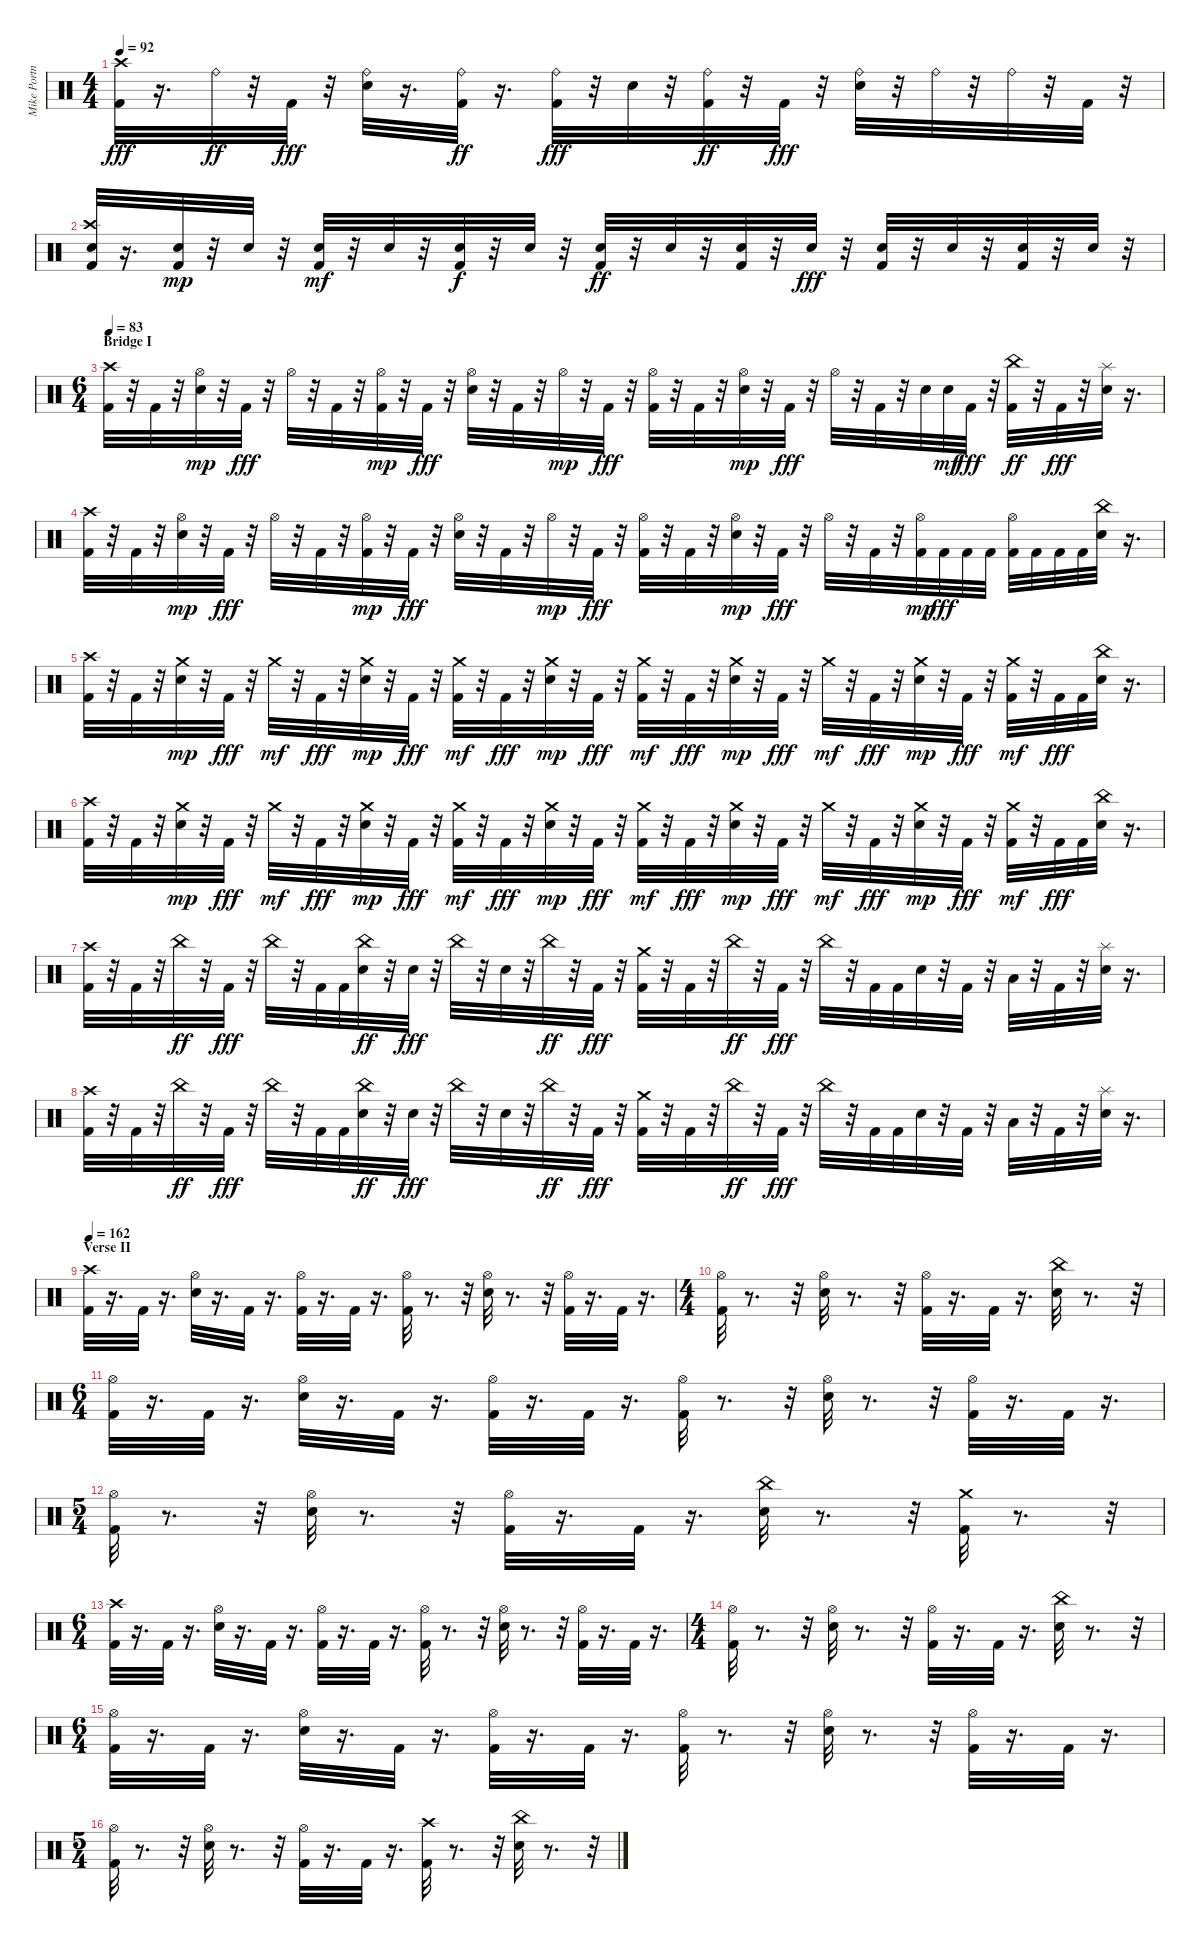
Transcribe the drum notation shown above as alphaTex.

\track ("Mike Portnoy" "Mike Portn") {instrument percussion}
\staff {score}
\articulation defaults
\ts (4 4)
\tempo 92
\clef neutral
\ks c
("Kick (hit) 2" "Crash high (hit)").32{dy fff} r.16{d} "Ride (bell)".32{dy ff} r.32 "Kick (hit) 2".32{dy fff} r.32 ("Ride (bell)" "Snare (hit) 2").32 r.16{d} ("Kick (hit) 2" "Ride (bell)").32{dy ff} r.16{d} ("Kick (hit) 2" "Ride (bell)").32{dy fff} r.32 "Snare (hit) 2".32 r.32 ("Kick (hit) 2" "Ride (bell)").32{dy ff} r.32 "Kick (hit) 2".32{dy fff} r.32 ("Ride (bell)" "Snare (hit) 2").32 r.32 "Ride (bell)".32 r.32 "Ride (bell)".32 r.32 "Kick (hit) 2".32 r.32 |
("Kick (hit) 2" "Snare (hit) 2" "Crash high (hit)").32 r.16{d} ("Kick (hit) 2" "Snare (hit) 2").32{dy mp} r.32 "Snare (hit) 2".32 r.32 ("Kick (hit) 2" "Snare (hit) 2").32{dy mf} r.32 "Snare (hit) 2".32 r.32 ("Kick (hit) 2" "Snare (hit) 2").32{dy f} r.32 "Snare (hit) 2".32 r.32 ("Kick (hit) 2" "Snare (hit) 2").32{dy ff} r.32 "Snare (hit) 2".32 r.32 ("Kick (hit) 2" "Snare (hit) 2").32 r.32 "Snare (hit) 2".32{dy fff} r.32 ("Kick (hit) 2" "Snare (hit) 2").32 r.32 "Snare (hit) 2".32 r.32 ("Kick (hit) 2" "Snare (hit) 2").32 r.32 "Snare (hit) 2".32 r.32 |
\ts (6 4)
\section ("" "Bridge I")
\tempo 83
("Kick (hit) 2" "Crash high (hit)").32 r.32 "Kick (hit) 2".32 r.32 ("Snare (hit) 2" "Hi-Hat (open)").32{dy mp} r.32 "Kick (hit) 2".32{dy fff} r.32 "Hi-Hat (open)".32 r.32 "Kick (hit) 2".32 r.32 ("Kick (hit) 2" "Hi-Hat (open)").32{dy mp} r.32 "Kick (hit) 2".32{dy fff} r.32 ("Snare (hit) 2" "Hi-Hat (open)").32 r.32 "Kick (hit) 2".32 r.32 "Hi-Hat (open)".32{dy mp} r.32 "Kick (hit) 2".32{dy fff} r.32 ("Kick (hit) 2" "Hi-Hat (open)").32 r.32 "Kick (hit) 2".32 r.32 ("Snare (hit) 2" "Hi-Hat (open)").32{dy mp} r.32 "Kick (hit) 2".32{dy fff} r.32 "Hi-Hat (open)".32 r.32 "Kick (hit) 2".32 r.32 "Snare (hit) 2".32 "Snare (hit) 2".32{dy mf} "Kick (hit) 2".32{dy fff} r.32 ("Kick (hit) 2" "China (hit)").32{dy ff} r.32 "Kick (hit) 2".32{dy fff} r.32 ("Snare (hit) 2" "Splash (hit)").32 r.16{d} |
("Kick (hit) 2" "Crash high (hit)").32 r.32 "Kick (hit) 2".32 r.32 ("Snare (hit) 2" "Hi-Hat (open)").32{dy mp} r.32 "Kick (hit) 2".32{dy fff} r.32 "Hi-Hat (open)".32 r.32 "Kick (hit) 2".32 r.32 ("Kick (hit) 2" "Hi-Hat (open)").32{dy mp} r.32 "Kick (hit) 2".32{dy fff} r.32 ("Snare (hit) 2" "Hi-Hat (open)").32 r.32 "Kick (hit) 2".32 r.32 "Hi-Hat (open)".32{dy mp} r.32 "Kick (hit) 2".32{dy fff} r.32 ("Kick (hit) 2" "Hi-Hat (open)").32 r.32 "Kick (hit) 2".32 r.32 ("Snare (hit) 2" "Hi-Hat (open)").32{dy mp} r.32 "Kick (hit) 2".32{dy fff} r.32 "Hi-Hat (open)".32 r.32 "Kick (hit) 2".32 r.32 ("Kick (hit) 2" "Hi-Hat (open)").32{dy mp} "Kick (hit) 2".32{dy fff} "Kick (hit) 2".32 "Kick (hit) 2".32 ("Kick (hit) 2" "Hi-Hat (open)").32 "Kick (hit) 2".32 "Kick (hit) 2".32 "Kick (hit) 2".32 ("Snare (hit) 2" "China (hit)").32 r.16{d} |
("Kick (hit) 2" "Crash high (hit)").32 r.32 "Kick (hit) 2".32 r.32 ("Snare (hit) 2" "Crash medium (hit)").32{dy mp} r.32 "Kick (hit) 2".32{dy fff} r.32 "Crash medium (hit)".32{dy mf} r.32 "Kick (hit) 2".32{dy fff} r.32 ("Snare (hit) 2" "Crash medium (hit)").32{dy mp} r.32 "Kick (hit) 2".32{dy fff} r.32 ("Kick (hit) 2" "Crash medium (hit)").32{dy mf} r.32 "Kick (hit) 2".32{dy fff} r.32 ("Snare (hit) 2" "Crash medium (hit)").32{dy mp} r.32 "Kick (hit) 2".32{dy fff} r.32 ("Kick (hit) 2" "Crash medium (hit)").32{dy mf} r.32 "Kick (hit) 2".32{dy fff} r.32 ("Snare (hit) 2" "Crash medium (hit)").32{dy mp} r.32 "Kick (hit) 2".32{dy fff} r.32 "Crash medium (hit)".32{dy mf} r.32 "Kick (hit) 2".32{dy fff} r.32 ("Snare (hit) 2" "Crash medium (hit)").32{dy mp} r.32 "Kick (hit) 2".32{dy fff} r.32 ("Kick (hit) 2" "Crash medium (hit)").32{dy mf} r.32 "Kick (hit) 2".32{dy fff} "Kick (hit) 2".32 ("Snare (hit) 2" "China (hit)").32 r.16{d} |
("Kick (hit) 2" "Crash high (hit)").32 r.32 "Kick (hit) 2".32 r.32 ("Snare (hit) 2" "Crash medium (hit)").32{dy mp} r.32 "Kick (hit) 2".32{dy fff} r.32 "Crash medium (hit)".32{dy mf} r.32 "Kick (hit) 2".32{dy fff} r.32 ("Snare (hit) 2" "Crash medium (hit)").32{dy mp} r.32 "Kick (hit) 2".32{dy fff} r.32 ("Kick (hit) 2" "Crash medium (hit)").32{dy mf} r.32 "Kick (hit) 2".32{dy fff} r.32 ("Snare (hit) 2" "Crash medium (hit)").32{dy mp} r.32 "Kick (hit) 2".32{dy fff} r.32 ("Kick (hit) 2" "Crash medium (hit)").32{dy mf} r.32 "Kick (hit) 2".32{dy fff} r.32 ("Snare (hit) 2" "Crash medium (hit)").32{dy mp} r.32 "Kick (hit) 2".32{dy fff} r.32 "Crash medium (hit)".32{dy mf} r.32 "Kick (hit) 2".32{dy fff} r.32 ("Snare (hit) 2" "Crash medium (hit)").32{dy mp} r.32 "Kick (hit) 2".32{dy fff} r.32 ("Kick (hit) 2" "Crash medium (hit)").32{dy mf} r.32 "Kick (hit) 2".32{dy fff} "Kick (hit) 2".32 ("Snare (hit) 2" "China (hit)").32 r.16{d} |
("Kick (hit) 2" "Crash high (hit)").32 r.32 "Kick (hit) 2".32 r.32 "China (hit)".32{dy ff} r.32 "Kick (hit) 2".32{dy fff} r.32 "China (hit)".32 r.32 "Kick (hit) 2".32 "Kick (hit) 2".32 ("Snare (hit) 2" "China (hit)").32{dy ff} r.32 "Snare (hit) 2".32{dy fff} r.32 "China (hit)".32 r.32 "Snare (hit) 2".32 r.32 "China (hit)".32{dy ff} r.32 "Kick (hit) 2".32{dy fff} r.32 ("Kick (hit) 2" "Crash medium (hit)").32 r.32 "Kick (hit) 2".32 r.32 "China (hit)".32{dy ff} r.32 "Kick (hit) 2".32{dy fff} r.32 "China (hit)".32 r.32 "Kick (hit) 2".32 "Kick (hit) 2".32 "Snare (hit) 2".32 r.32 "Kick (hit) 2".32 r.32 "Low Tom (hit)".32 r.32 "Kick (hit) 2".32 r.32 ("Snare (hit) 2" "Splash (hit)").32 r.16{d} |
("Kick (hit) 2" "Crash high (hit)").32 r.32 "Kick (hit) 2".32 r.32 "China (hit)".32{dy ff} r.32 "Kick (hit) 2".32{dy fff} r.32 "China (hit)".32 r.32 "Kick (hit) 2".32 "Kick (hit) 2".32 ("Snare (hit) 2" "China (hit)").32{dy ff} r.32 "Snare (hit) 2".32{dy fff} r.32 "China (hit)".32 r.32 "Snare (hit) 2".32 r.32 "China (hit)".32{dy ff} r.32 "Kick (hit) 2".32{dy fff} r.32 ("Kick (hit) 2" "Crash medium (hit)").32 r.32 "Kick (hit) 2".32 r.32 "China (hit)".32{dy ff} r.32 "Kick (hit) 2".32{dy fff} r.32 "China (hit)".32 r.32 "Kick (hit) 2".32 "Kick (hit) 2".32 "Snare (hit) 2".32 r.32 "Kick (hit) 2".32 r.32 "Low Tom (hit)".32 r.32 "Kick (hit) 2".32 r.32 ("Snare (hit) 2" "Splash (hit)").32 r.16{d} |
\section ("" "Verse II")
\tempo 162
("Crash high (hit)" "Kick (hit) 2").32 r.16{d} "Kick (hit) 2".32 r.16{d} ("Hi-Hat (open)" "Snare (hit) 2").32 r.16{d} "Kick (hit) 2".32 r.16{d} ("Hi-Hat (open)" "Kick (hit) 2").32 r.16{d} "Kick (hit) 2".32 r.16{d} ("Hi-Hat (open)" "Kick (hit) 2").32 r.8{d} r.32 ("Hi-Hat (open)" "Snare (hit) 2").32 r.8{d} r.32 ("Hi-Hat (open)" "Kick (hit) 2").32 r.16{d} "Kick (hit) 2".32 r.16{d} |
\ts (4 4)
("Hi-Hat (open)" "Kick (hit) 2").32 r.8{d} r.32 ("Hi-Hat (open)" "Snare (hit) 2").32 r.8{d} r.32 ("Hi-Hat (open)" "Kick (hit) 2").32 r.16{d} "Kick (hit) 2".32 r.16{d} ("Snare (hit) 2" "China (hit)").32 r.8{d} r.32 |
\ts (6 4)
("Hi-Hat (open)" "Kick (hit) 2").32 r.16{d} "Kick (hit) 2".32 r.16{d} ("Hi-Hat (open)" "Snare (hit) 2").32 r.16{d} "Kick (hit) 2".32 r.16{d} ("Hi-Hat (open)" "Kick (hit) 2").32 r.16{d} "Kick (hit) 2".32 r.16{d} ("Hi-Hat (open)" "Kick (hit) 2").32 r.8{d} r.32 ("Hi-Hat (open)" "Snare (hit) 2").32 r.8{d} r.32 ("Hi-Hat (open)" "Kick (hit) 2").32 r.16{d} "Kick (hit) 2".32 r.16{d} |
\ts (5 4)
("Hi-Hat (open)" "Kick (hit) 2").32 r.8{d} r.32 ("Hi-Hat (open)" "Snare (hit) 2").32 r.8{d} r.32 ("Hi-Hat (open)" "Kick (hit) 2").32 r.16{d} "Kick (hit) 2".32 r.16{d} ("Snare (hit) 2" "China (hit)").32 r.8{d} r.32 ("Kick (hit) 2" "Crash medium (hit)").32 r.8{d} r.32 |
\ts (6 4)
("Crash high (hit)" "Kick (hit) 2").32 r.16{d} "Kick (hit) 2".32 r.16{d} ("Hi-Hat (open)" "Snare (hit) 2").32 r.16{d} "Kick (hit) 2".32 r.16{d} ("Hi-Hat (open)" "Kick (hit) 2").32 r.16{d} "Kick (hit) 2".32 r.16{d} ("Hi-Hat (open)" "Kick (hit) 2").32 r.8{d} r.32 ("Hi-Hat (open)" "Snare (hit) 2").32 r.8{d} r.32 ("Hi-Hat (open)" "Kick (hit) 2").32 r.16{d} "Kick (hit) 2".32 r.16{d} |
\ts (4 4)
("Hi-Hat (open)" "Kick (hit) 2").32 r.8{d} r.32 ("Hi-Hat (open)" "Snare (hit) 2").32 r.8{d} r.32 ("Hi-Hat (open)" "Kick (hit) 2").32 r.16{d} "Kick (hit) 2".32 r.16{d} ("Snare (hit) 2" "China (hit)").32 r.8{d} r.32 |
\ts (6 4)
("Hi-Hat (open)" "Kick (hit) 2").32 r.16{d} "Kick (hit) 2".32 r.16{d} ("Hi-Hat (open)" "Snare (hit) 2").32 r.16{d} "Kick (hit) 2".32 r.16{d} ("Hi-Hat (open)" "Kick (hit) 2").32 r.16{d} "Kick (hit) 2".32 r.16{d} ("Hi-Hat (open)" "Kick (hit) 2").32 r.8{d} r.32 ("Hi-Hat (open)" "Snare (hit) 2").32 r.8{d} r.32 ("Hi-Hat (open)" "Kick (hit) 2").32 r.16{d} "Kick (hit) 2".32 r.16{d} |
\ts (5 4)
("Hi-Hat (open)" "Kick (hit) 2").32 r.8{d} r.32 ("Hi-Hat (open)" "Snare (hit) 2").32 r.8{d} r.32 ("Hi-Hat (open)" "Kick (hit) 2").32 r.16{d} "Kick (hit) 2".32 r.16{d} ("Kick (hit) 2" "Crash high (hit)").32 r.8{d} r.32 ("Snare (hit) 2" "China (hit)").32 r.8{d} r.32
